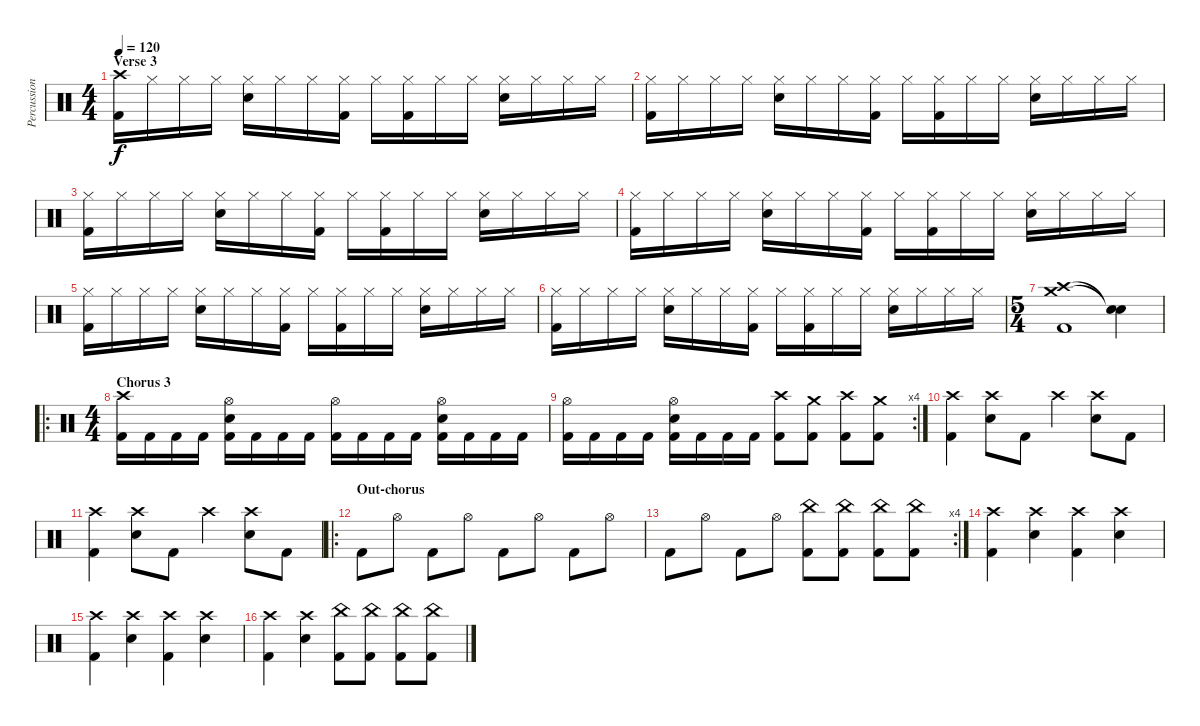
\track ("Percussion" "Percussion") {instrument percussion}
\staff {score}
\articulation defaults
\ts (4 4)
\section ("" "Verse 3")
\tempo 120
\clef neutral
\ks c
("Crash high (hit)" "Kick (hit) 2").16{dy f} "Hi-Hat (closed)".16 "Hi-Hat (closed)".16 "Hi-Hat (closed)".16 ("Hi-Hat (closed)" "Snare (hit) 2").16 "Hi-Hat (closed)".16 "Hi-Hat (closed)".16 ("Hi-Hat (closed)" "Kick (hit) 2").16 "Hi-Hat (closed)".16 ("Hi-Hat (closed)" "Kick (hit) 2").16 "Hi-Hat (closed)".16 "Hi-Hat (closed)".16 ("Hi-Hat (closed)" "Snare (hit) 2").16 "Hi-Hat (closed)".16 "Hi-Hat (closed)".16 "Hi-Hat (closed)".16 |
("Hi-Hat (closed)" "Kick (hit) 2").16 "Hi-Hat (closed)".16 "Hi-Hat (closed)".16 "Hi-Hat (closed)".16 ("Hi-Hat (closed)" "Snare (hit) 2").16 "Hi-Hat (closed)".16 "Hi-Hat (closed)".16 ("Hi-Hat (closed)" "Kick (hit) 2").16 "Hi-Hat (closed)".16 ("Hi-Hat (closed)" "Kick (hit) 2").16 "Hi-Hat (closed)".16 "Hi-Hat (closed)".16 ("Hi-Hat (closed)" "Snare (hit) 2").16 "Hi-Hat (closed)".16 "Hi-Hat (closed)".16 "Hi-Hat (closed)".16 |
("Hi-Hat (closed)" "Kick (hit) 2").16 "Hi-Hat (closed)".16 "Hi-Hat (closed)".16 "Hi-Hat (closed)".16 ("Hi-Hat (closed)" "Snare (hit) 2").16 "Hi-Hat (closed)".16 "Hi-Hat (closed)".16 ("Hi-Hat (closed)" "Kick (hit) 2").16 "Hi-Hat (closed)".16 ("Hi-Hat (closed)" "Kick (hit) 2").16 "Hi-Hat (closed)".16 "Hi-Hat (closed)".16 ("Hi-Hat (closed)" "Snare (hit) 2").16 "Hi-Hat (closed)".16 "Hi-Hat (closed)".16 "Hi-Hat (closed)".16 |
("Hi-Hat (closed)" "Kick (hit) 2").16 "Hi-Hat (closed)".16 "Hi-Hat (closed)".16 "Hi-Hat (closed)".16 ("Hi-Hat (closed)" "Snare (hit) 2").16 "Hi-Hat (closed)".16 "Hi-Hat (closed)".16 ("Hi-Hat (closed)" "Kick (hit) 2").16 "Hi-Hat (closed)".16 ("Hi-Hat (closed)" "Kick (hit) 2").16 "Hi-Hat (closed)".16 "Hi-Hat (closed)".16 ("Hi-Hat (closed)" "Snare (hit) 2").16 "Hi-Hat (closed)".16 "Hi-Hat (closed)".16 "Hi-Hat (closed)".16 |
("Hi-Hat (closed)" "Kick (hit) 2").16 "Hi-Hat (closed)".16 "Hi-Hat (closed)".16 "Hi-Hat (closed)".16 ("Hi-Hat (closed)" "Snare (hit) 2").16 "Hi-Hat (closed)".16 "Hi-Hat (closed)".16 ("Hi-Hat (closed)" "Kick (hit) 2").16 "Hi-Hat (closed)".16 ("Hi-Hat (closed)" "Kick (hit) 2").16 "Hi-Hat (closed)".16 "Hi-Hat (closed)".16 ("Hi-Hat (closed)" "Snare (hit) 2").16 "Hi-Hat (closed)".16 "Hi-Hat (closed)".16 "Hi-Hat (closed)".16 |
("Hi-Hat (closed)" "Kick (hit) 2").16 "Hi-Hat (closed)".16 "Hi-Hat (closed)".16 "Hi-Hat (closed)".16 ("Hi-Hat (closed)" "Snare (hit) 2").16 "Hi-Hat (closed)".16 "Hi-Hat (closed)".16 ("Hi-Hat (closed)" "Kick (hit) 2").16 "Hi-Hat (closed)".16 ("Hi-Hat (closed)" "Kick (hit) 2").16 "Hi-Hat (closed)".16 "Hi-Hat (closed)".16 ("Hi-Hat (closed)" "Snare (hit) 2").16 "Hi-Hat (closed)".16 "Hi-Hat (closed)".16 "Hi-Hat (closed)".16 |
\ts (5 4)
("Crash high (hit)" "Crash medium (hit)" "Kick (hit) 2").1 ("Snare (hit)"{t} "Snare (hit)"{t}).4 |
\ro
\ts (4 4)
\section ("" "Chorus 3")
("Crash high (hit)" "Kick (hit) 2").16 "Kick (hit) 2".16 "Kick (hit) 2".16 "Kick (hit) 2".16 ("Hi-Hat (open)" "Snare (hit) 2" "Kick (hit) 2").16 "Kick (hit) 2".16 "Kick (hit) 2".16 "Kick (hit) 2".16 ("Hi-Hat (open)" "Kick (hit) 2").16 "Kick (hit) 2".16 "Kick (hit) 2".16 "Kick (hit) 2".16 ("Hi-Hat (open)" "Snare (hit) 2" "Kick (hit) 2").16 "Kick (hit) 2".16 "Kick (hit) 2".16 "Kick (hit) 2".16 |
\rc 4
("Hi-Hat (open)" "Kick (hit) 2").16 "Kick (hit) 2".16 "Kick (hit) 2".16 "Kick (hit) 2".16 ("Hi-Hat (open)" "Snare (hit) 2" "Kick (hit) 2").16 "Kick (hit) 2".16 "Kick (hit) 2".16 "Kick (hit) 2".16 ("Crash high (hit)" "Kick (hit) 2").8 ("Crash medium (hit)" "Kick (hit) 2").8 ("Crash high (hit)" "Kick (hit) 2").8 ("Crash medium (hit)" "Kick (hit) 2").8 |
("Crash high (hit)" "Kick (hit) 2").4 ("Crash high (hit)" "Snare (hit) 2").8 "Kick (hit) 2".8 "Crash high (hit)".4 ("Crash high (hit)" "Snare (hit) 2").8 "Kick (hit) 2".8 |
("Crash high (hit)" "Kick (hit) 2").4 ("Crash high (hit)" "Snare (hit) 2").8 "Kick (hit) 2".8 "Crash high (hit)".4 ("Crash high (hit)" "Snare (hit) 2").8 "Kick (hit) 2".8 |
\ro
\section ("" "Out-chorus")
"Kick (hit) 2".8 "Hi-Hat (open)".8 "Kick (hit) 2".8 "Hi-Hat (open)".8 "Kick (hit) 2".8 "Hi-Hat (open)".8 "Kick (hit) 2".8 "Hi-Hat (open)".8 |
\rc 4 "Kick (hit) 2".8 "Hi-Hat (open)".8 "Kick (hit) 2".8 "Hi-Hat (open)".8
("China (hit)" "Kick (hit) 2").8 ("China (hit)" "Kick (hit) 2").8 ("China (hit)" "Kick (hit) 2").8 ("China (hit)" "Kick (hit) 2").8 |
("Crash high (hit)" "Kick (hit) 2").4 ("Crash high (hit)" "Snare (hit) 2").4 ("Crash high (hit)" "Kick (hit) 2").4 ("Crash high (hit)" "Snare (hit) 2").4 |
("Crash high (hit)" "Kick (hit) 2").4 ("Crash high (hit)" "Snare (hit) 2").4 ("Crash high (hit)" "Kick (hit) 2").4 ("Crash high (hit)" "Snare (hit) 2").4 |
("Crash high (hit)" "Kick (hit) 2").4 ("Crash high (hit)" "Snare (hit) 2").4 ("China (hit)" "Kick (hit) 2").8 ("China (hit)" "Kick (hit) 2").8 ("China (hit)" "Kick (hit) 2").8 ("China (hit)" "Kick (hit) 2").8
